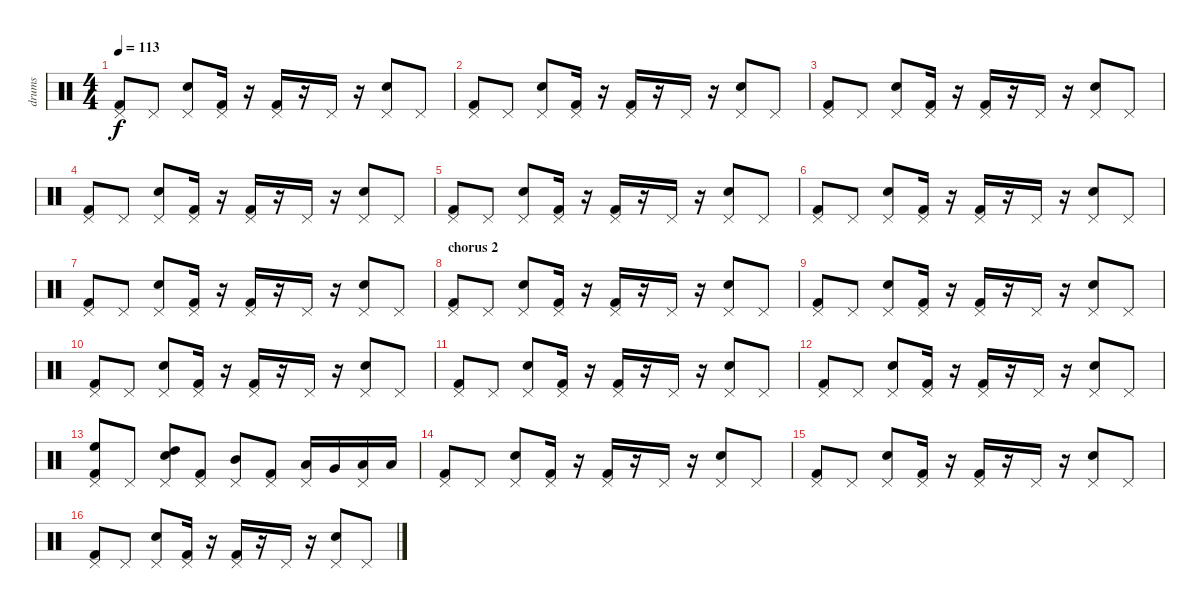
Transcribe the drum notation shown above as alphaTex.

\track ("drums" "drums") {instrument percussion}
\staff {score}
\articulation defaults
\ts (4 4)
\tempo 113
\clef neutral
\ks c
("Kick (hit) 2" "Pedal Hi-Hat (hit)").8{dy f} "Pedal Hi-Hat (hit)".8 ("Snare (hit) 2" "Pedal Hi-Hat (hit)").8 ("Kick (hit) 2" "Pedal Hi-Hat (hit)").16 r.16 ("Kick (hit) 2" "Pedal Hi-Hat (hit)").16 r.16 "Pedal Hi-Hat (hit)".16 r.16 ("Snare (hit) 2" "Pedal Hi-Hat (hit)").8 "Pedal Hi-Hat (hit)".8 |
("Kick (hit) 2" "Pedal Hi-Hat (hit)").8 "Pedal Hi-Hat (hit)".8 ("Snare (hit) 2" "Pedal Hi-Hat (hit)").8 ("Kick (hit) 2" "Pedal Hi-Hat (hit)").16 r.16 ("Kick (hit) 2" "Pedal Hi-Hat (hit)").16 r.16 "Pedal Hi-Hat (hit)".16 r.16 ("Snare (hit) 2" "Pedal Hi-Hat (hit)").8 "Pedal Hi-Hat (hit)".8 |
("Kick (hit) 2" "Pedal Hi-Hat (hit)").8 "Pedal Hi-Hat (hit)".8 ("Snare (hit) 2" "Pedal Hi-Hat (hit)").8 ("Kick (hit) 2" "Pedal Hi-Hat (hit)").16 r.16 ("Kick (hit) 2" "Pedal Hi-Hat (hit)").16 r.16 "Pedal Hi-Hat (hit)".16 r.16 ("Snare (hit) 2" "Pedal Hi-Hat (hit)").8 "Pedal Hi-Hat (hit)".8 |
("Kick (hit) 2" "Pedal Hi-Hat (hit)").8 "Pedal Hi-Hat (hit)".8 ("Snare (hit) 2" "Pedal Hi-Hat (hit)").8 ("Kick (hit) 2" "Pedal Hi-Hat (hit)").16 r.16 ("Kick (hit) 2" "Pedal Hi-Hat (hit)").16 r.16 "Pedal Hi-Hat (hit)".16 r.16 ("Snare (hit) 2" "Pedal Hi-Hat (hit)").8 "Pedal Hi-Hat (hit)".8 |
("Kick (hit) 2" "Pedal Hi-Hat (hit)").8 "Pedal Hi-Hat (hit)".8 ("Snare (hit) 2" "Pedal Hi-Hat (hit)").8 ("Kick (hit) 2" "Pedal Hi-Hat (hit)").16 r.16 ("Kick (hit) 2" "Pedal Hi-Hat (hit)").16 r.16 "Pedal Hi-Hat (hit)".16 r.16 ("Snare (hit) 2" "Pedal Hi-Hat (hit)").8 "Pedal Hi-Hat (hit)".8 |
("Kick (hit) 2" "Pedal Hi-Hat (hit)").8 "Pedal Hi-Hat (hit)".8 ("Snare (hit) 2" "Pedal Hi-Hat (hit)").8 ("Kick (hit) 2" "Pedal Hi-Hat (hit)").16 r.16 ("Kick (hit) 2" "Pedal Hi-Hat (hit)").16 r.16 "Pedal Hi-Hat (hit)".16 r.16 ("Snare (hit) 2" "Pedal Hi-Hat (hit)").8 "Pedal Hi-Hat (hit)".8 |
("Kick (hit) 2" "Pedal Hi-Hat (hit)").8 "Pedal Hi-Hat (hit)".8 ("Snare (hit) 2" "Pedal Hi-Hat (hit)").8 ("Kick (hit) 2" "Pedal Hi-Hat (hit)").16 r.16 ("Kick (hit) 2" "Pedal Hi-Hat (hit)").16 r.16 "Pedal Hi-Hat (hit)".16 r.16 ("Snare (hit) 2" "Pedal Hi-Hat (hit)").8 "Pedal Hi-Hat (hit)".8 |
\section ("" "chorus 2")
("Kick (hit) 2" "Pedal Hi-Hat (hit)").8 "Pedal Hi-Hat (hit)".8 ("Snare (hit) 2" "Pedal Hi-Hat (hit)").8 ("Kick (hit) 2" "Pedal Hi-Hat (hit)").16 r.16 ("Kick (hit) 2" "Pedal Hi-Hat (hit)").16 r.16 "Pedal Hi-Hat (hit)".16 r.16 ("Snare (hit) 2" "Pedal Hi-Hat (hit)").8 "Pedal Hi-Hat (hit)".8 |
("Kick (hit) 2" "Pedal Hi-Hat (hit)").8 "Pedal Hi-Hat (hit)".8 ("Snare (hit) 2" "Pedal Hi-Hat (hit)").8 ("Kick (hit) 2" "Pedal Hi-Hat (hit)").16 r.16 ("Kick (hit) 2" "Pedal Hi-Hat (hit)").16 r.16 "Pedal Hi-Hat (hit)".16 r.16 ("Snare (hit) 2" "Pedal Hi-Hat (hit)").8 "Pedal Hi-Hat (hit)".8 |
("Kick (hit) 2" "Pedal Hi-Hat (hit)").8 "Pedal Hi-Hat (hit)".8 ("Snare (hit) 2" "Pedal Hi-Hat (hit)").8 ("Kick (hit) 2" "Pedal Hi-Hat (hit)").16 r.16 ("Kick (hit) 2" "Pedal Hi-Hat (hit)").16 r.16 "Pedal Hi-Hat (hit)".16 r.16 ("Snare (hit) 2" "Pedal Hi-Hat (hit)").8 "Pedal Hi-Hat (hit)".8 |
("Kick (hit) 2" "Pedal Hi-Hat (hit)").8 "Pedal Hi-Hat (hit)".8 ("Snare (hit) 2" "Pedal Hi-Hat (hit)").8 ("Kick (hit) 2" "Pedal Hi-Hat (hit)").16 r.16 ("Kick (hit) 2" "Pedal Hi-Hat (hit)").16 r.16 "Pedal Hi-Hat (hit)".16 r.16 ("Snare (hit) 2" "Pedal Hi-Hat (hit)").8 "Pedal Hi-Hat (hit)".8 |
("Kick (hit) 2" "Pedal Hi-Hat (hit)").8 "Pedal Hi-Hat (hit)".8 ("Snare (hit) 2" "Pedal Hi-Hat (hit)").8 ("Kick (hit) 2" "Pedal Hi-Hat (hit)").16 r.16 ("Kick (hit) 2" "Pedal Hi-Hat (hit)").16 r.16 "Pedal Hi-Hat (hit)".16 r.16 ("Snare (hit) 2" "Pedal Hi-Hat (hit)").8 "Pedal Hi-Hat (hit)".8 |
("Kick (hit) 2" "Pedal Hi-Hat (hit)" "High Floor Tom (hit)").8 "Pedal Hi-Hat (hit)".8 ("Snare (hit) 2" "Pedal Hi-Hat (hit)" "High Tom (hit)").8 ("Kick (hit) 2" "Pedal Hi-Hat (hit)").8 ("Pedal Hi-Hat (hit)" "Mid Tom (hit)").8 ("Kick (hit) 2" "Pedal Hi-Hat (hit)").8 ("Pedal Hi-Hat (hit)" "Low Tom (hit)").16 "Very Low Tom (hit)".16 ("Pedal Hi-Hat (hit)" "Low Floor Tom (hit)").16 "Low Floor Tom (hit)".16 |
("Kick (hit) 2" "Pedal Hi-Hat (hit)").8 "Pedal Hi-Hat (hit)".8 ("Snare (hit) 2" "Pedal Hi-Hat (hit)").8 ("Kick (hit) 2" "Pedal Hi-Hat (hit)").16 r.16 ("Kick (hit) 2" "Pedal Hi-Hat (hit)").16 r.16 "Pedal Hi-Hat (hit)".16 r.16 ("Snare (hit) 2" "Pedal Hi-Hat (hit)").8 "Pedal Hi-Hat (hit)".8 |
("Kick (hit) 2" "Pedal Hi-Hat (hit)").8 "Pedal Hi-Hat (hit)".8 ("Snare (hit) 2" "Pedal Hi-Hat (hit)").8 ("Kick (hit) 2" "Pedal Hi-Hat (hit)").16 r.16 ("Kick (hit) 2" "Pedal Hi-Hat (hit)").16 r.16 "Pedal Hi-Hat (hit)".16 r.16 ("Snare (hit) 2" "Pedal Hi-Hat (hit)").8 "Pedal Hi-Hat (hit)".8 |
("Kick (hit) 2" "Pedal Hi-Hat (hit)").8 "Pedal Hi-Hat (hit)".8 ("Snare (hit) 2" "Pedal Hi-Hat (hit)").8 ("Kick (hit) 2" "Pedal Hi-Hat (hit)").16 r.16 ("Kick (hit) 2" "Pedal Hi-Hat (hit)").16 r.16 "Pedal Hi-Hat (hit)".16 r.16 ("Snare (hit) 2" "Pedal Hi-Hat (hit)").8 "Pedal Hi-Hat (hit)".8
